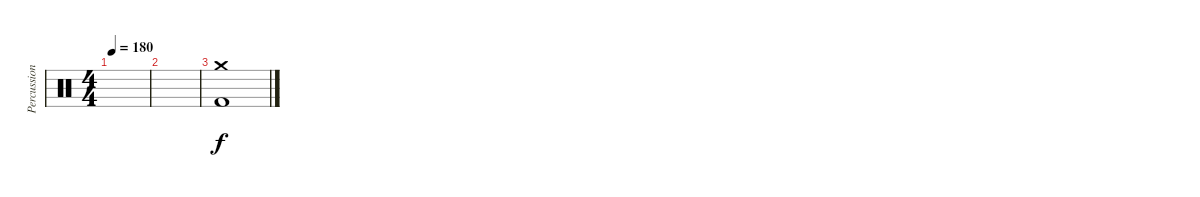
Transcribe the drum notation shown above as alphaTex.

\track ("Percussions" "Percussion") {instrument percussion}
\staff {score}
\articulation defaults
\ts (4 4)
\tempo 180
\clef neutral
\ks c
|
|
("Crash medium (hit)" "Kick (hit) 2").1
